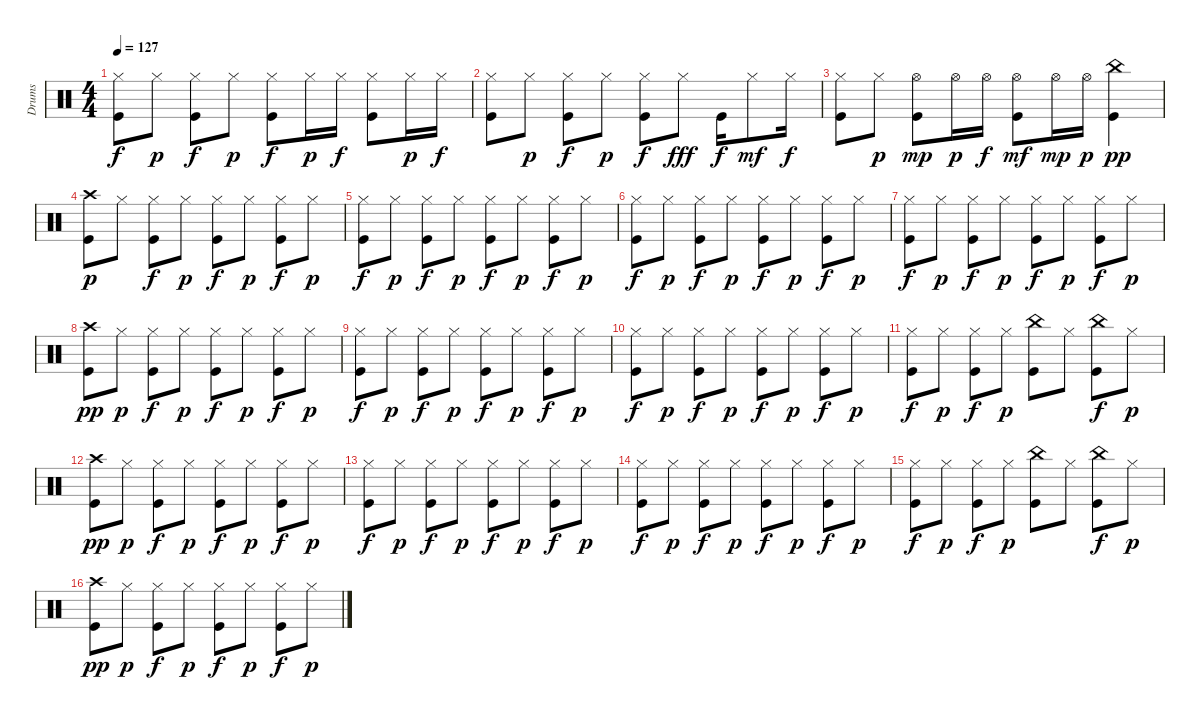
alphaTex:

\track ("Drums" "Drums") {instrument percussion}
\staff {score}
\articulation defaults
\ts (4 4)
\tempo 127
\clef neutral
\ks c
("Hi-Hat (closed)" "Kick (hit)").8{dy f} "Hi-Hat (closed)".8{dy p} ("Hi-Hat (closed)" "Kick (hit)").8{dy f} "Hi-Hat (closed)".8{dy p} ("Hi-Hat (closed)" "Kick (hit)").8{dy f} "Hi-Hat (closed)".16{dy p} "Hi-Hat (closed)".16{dy f} ("Hi-Hat (closed)" "Kick (hit)").8 "Hi-Hat (closed)".16{dy p} "Hi-Hat (closed)".16{dy f} |
("Hi-Hat (closed)" "Kick (hit)").8 "Hi-Hat (closed)".8{dy p} ("Hi-Hat (closed)" "Kick (hit)").8{dy f} "Hi-Hat (closed)".8{dy p} ("Hi-Hat (closed)" "Kick (hit)").8{dy f} "Hi-Hat (closed)".8{dy fff} "Kick (hit)".16{dy f} "Hi-Hat (closed)".8{dy mf} "Hi-Hat (closed)".16{dy f} |
("Hi-Hat (closed)" "Kick (hit)").8 "Hi-Hat (closed)".8{dy p} ("Hi-Hat (open)" "Kick (hit)").8{dy mp} "Hi-Hat (open)".16{dy p} "Hi-Hat (open)".16{dy f} ("Hi-Hat (open)" "Kick (hit)").8{dy mf} "Hi-Hat (open)".16{dy mp} "Hi-Hat (open)".16{dy p} ("China (hit)" "Kick (hit)").4{dy pp} |
("Crash high (hit)" "Kick (hit)").8{dy p} "Hi-Hat (closed)".8 ("Hi-Hat (closed)" "Kick (hit)").8{dy f} "Hi-Hat (closed)".8{dy p} ("Hi-Hat (closed)" "Kick (hit)").8{dy f} "Hi-Hat (closed)".8{dy p} ("Hi-Hat (closed)" "Kick (hit)").8{dy f} "Hi-Hat (closed)".8{dy p} |
("Hi-Hat (closed)" "Kick (hit)").8{dy f} "Hi-Hat (closed)".8{dy p} ("Hi-Hat (closed)" "Kick (hit)").8{dy f} "Hi-Hat (closed)".8{dy p} ("Hi-Hat (closed)" "Kick (hit)").8{dy f} "Hi-Hat (closed)".8{dy p} ("Hi-Hat (closed)" "Kick (hit)").8{dy f} "Hi-Hat (closed)".8{dy p} |
("Hi-Hat (closed)" "Kick (hit)").8{dy f} "Hi-Hat (closed)".8{dy p} ("Hi-Hat (closed)" "Kick (hit)").8{dy f} "Hi-Hat (closed)".8{dy p} ("Hi-Hat (closed)" "Kick (hit)").8{dy f} "Hi-Hat (closed)".8{dy p} ("Hi-Hat (closed)" "Kick (hit)").8{dy f} "Hi-Hat (closed)".8{dy p} |
("Hi-Hat (closed)" "Kick (hit)").8{dy f} "Hi-Hat (closed)".8{dy p} ("Hi-Hat (closed)" "Kick (hit)").8{dy f} "Hi-Hat (closed)".8{dy p} ("Hi-Hat (closed)" "Kick (hit)").8{dy f} "Hi-Hat (closed)".8{dy p} ("Hi-Hat (closed)" "Kick (hit)").8{dy f} "Hi-Hat (closed)".8{dy p} |
("Crash high (hit)" "Kick (hit)").8{dy pp} "Hi-Hat (closed)".8{dy p} ("Hi-Hat (closed)" "Kick (hit)").8{dy f} "Hi-Hat (closed)".8{dy p} ("Hi-Hat (closed)" "Kick (hit)").8{dy f} "Hi-Hat (closed)".8{dy p} ("Hi-Hat (closed)" "Kick (hit)").8{dy f} "Hi-Hat (closed)".8{dy p} |
("Hi-Hat (closed)" "Kick (hit)").8{dy f} "Hi-Hat (closed)".8{dy p} ("Hi-Hat (closed)" "Kick (hit)").8{dy f} "Hi-Hat (closed)".8{dy p} ("Hi-Hat (closed)" "Kick (hit)").8{dy f} "Hi-Hat (closed)".8{dy p} ("Hi-Hat (closed)" "Kick (hit)").8{dy f} "Hi-Hat (closed)".8{dy p} |
("Hi-Hat (closed)" "Kick (hit)").8{dy f} "Hi-Hat (closed)".8{dy p} ("Hi-Hat (closed)" "Kick (hit)").8{dy f} "Hi-Hat (closed)".8{dy p} ("Hi-Hat (closed)" "Kick (hit)").8{dy f} "Hi-Hat (closed)".8{dy p} ("Hi-Hat (closed)" "Kick (hit)").8{dy f} "Hi-Hat (closed)".8{dy p} |
("Hi-Hat (closed)" "Kick (hit)").8{dy f} "Hi-Hat (closed)".8{dy p} ("Hi-Hat (closed)" "Kick (hit)").8{dy f} "Hi-Hat (closed)".8{dy p} ("China (hit)" "Kick (hit)").8 "Hi-Hat (closed)".8 ("China (hit)" "Kick (hit)").8{dy f} "Hi-Hat (closed)".8{dy p} |
("Crash high (hit)" "Kick (hit)").8{dy pp} "Hi-Hat (closed)".8{dy p} ("Hi-Hat (closed)" "Kick (hit)").8{dy f} "Hi-Hat (closed)".8{dy p} ("Hi-Hat (closed)" "Kick (hit)").8{dy f} "Hi-Hat (closed)".8{dy p} ("Hi-Hat (closed)" "Kick (hit)").8{dy f} "Hi-Hat (closed)".8{dy p} |
("Hi-Hat (closed)" "Kick (hit)").8{dy f} "Hi-Hat (closed)".8{dy p} ("Hi-Hat (closed)" "Kick (hit)").8{dy f} "Hi-Hat (closed)".8{dy p} ("Hi-Hat (closed)" "Kick (hit)").8{dy f} "Hi-Hat (closed)".8{dy p} ("Hi-Hat (closed)" "Kick (hit)").8{dy f} "Hi-Hat (closed)".8{dy p} |
("Hi-Hat (closed)" "Kick (hit)").8{dy f} "Hi-Hat (closed)".8{dy p} ("Hi-Hat (closed)" "Kick (hit)").8{dy f} "Hi-Hat (closed)".8{dy p} ("Hi-Hat (closed)" "Kick (hit)").8{dy f} "Hi-Hat (closed)".8{dy p} ("Hi-Hat (closed)" "Kick (hit)").8{dy f} "Hi-Hat (closed)".8{dy p} |
("Hi-Hat (closed)" "Kick (hit)").8{dy f} "Hi-Hat (closed)".8{dy p} ("Hi-Hat (closed)" "Kick (hit)").8{dy f} "Hi-Hat (closed)".8{dy p} ("China (hit)" "Kick (hit)").8 "Hi-Hat (closed)".8 ("China (hit)" "Kick (hit)").8{dy f} "Hi-Hat (closed)".8{dy p} |
("Crash high (hit)" "Kick (hit)").8{dy pp} "Hi-Hat (closed)".8{dy p} ("Hi-Hat (closed)" "Kick (hit)").8{dy f} "Hi-Hat (closed)".8{dy p} ("Hi-Hat (closed)" "Kick (hit)").8{dy f} "Hi-Hat (closed)".8{dy p} ("Hi-Hat (closed)" "Kick (hit)").8{dy f} "Hi-Hat (closed)".8{dy p}
